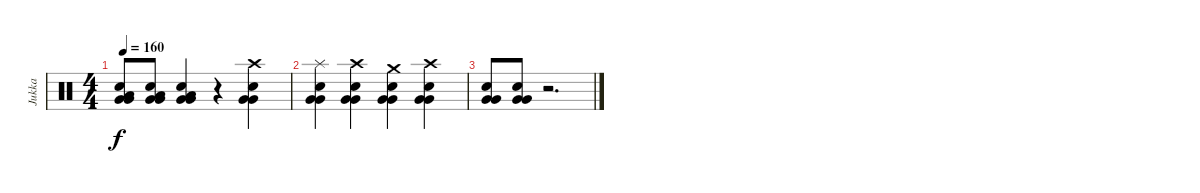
\track ("Jukka" "Jukka") {instrument percussion}
\staff {score}
\articulation defaults
\ts (4 4)
\tempo 160
\clef neutral
\ks c
("Electric Snare (hit)" "Low Tom (hit)" "Very Low Tom (hit)" "Very Low Tom (hit)").8{dy f} ("Electric Snare (hit)" "Low Tom (hit)" "Very Low Tom (hit)" "Very Low Tom (hit)").8 ("Electric Snare (hit)" "Low Tom (hit)" "Very Low Tom (hit)" "Very Low Tom (hit)").4 r.4 ("Crash high (hit)" "Electric Snare (hit)" "Very Low Tom (hit)" "Very Low Tom (hit)").4 |
("Splash (hit)" "Electric Snare (hit)" "Very Low Tom (hit)" "Very Low Tom (hit)").4 ("Crash high (hit)" "Electric Snare (hit)" "Very Low Tom (hit)" "Very Low Tom (hit)").4 ("Crash medium (hit)" "Electric Snare (hit)" "Very Low Tom (hit)" "Very Low Tom (hit)").4 ("Crash high (hit)" "Electric Snare (hit)" "Very Low Tom (hit)" "Very Low Tom (hit)").4 |
("Electric Snare (hit)" "Very Low Tom (hit)" "Very Low Tom (hit)").8 ("Electric Snare (hit)" "Very Low Tom (hit)" "Very Low Tom (hit)").8 r.2{d}
